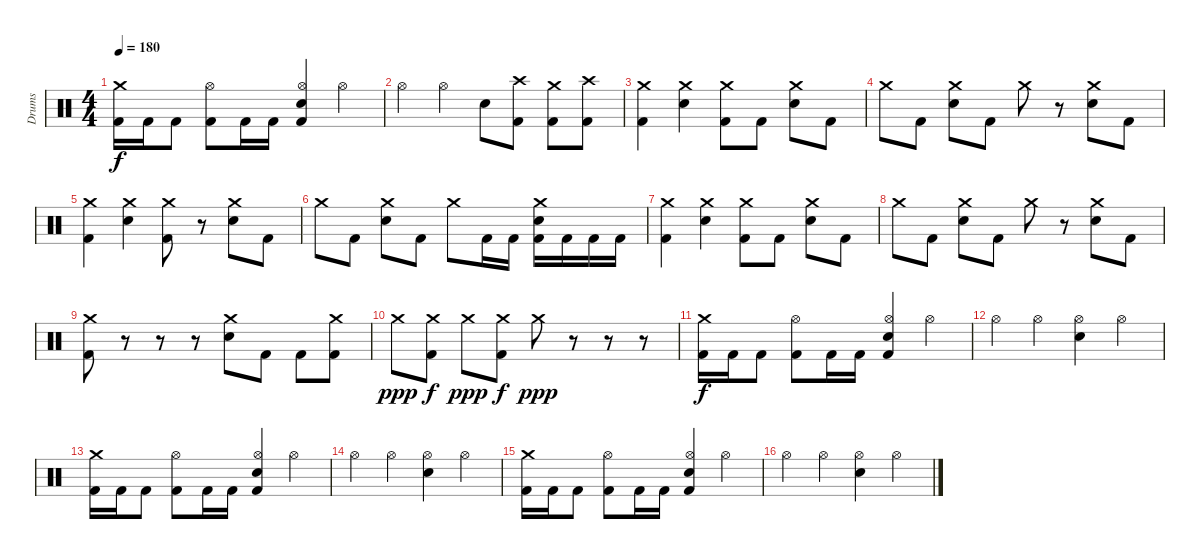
\track ("Drums" "Drums") {instrument percussion}
\staff
\articulation defaults
\ts (4 4)
\tempo 180
\clef neutral
\ks c
("Crash medium (hit)" "Kick (hit) 2").16{dy f} "Kick (hit) 2".16 "Kick (hit) 2".8 ("Hi-Hat (open)" "Kick (hit) 2").8 "Kick (hit) 2".16 "Kick (hit) 2".16 ("Hi-Hat (open)" "Electric Snare (hit)" "Kick (hit) 2").4 "Hi-Hat (open)".4 |
"Hi-Hat (open)".4 "Hi-Hat (open)".4 "Electric Snare (hit)".8 ("Crash high (hit)" "Kick (hit) 2").8 ("Crash medium (hit)" "Kick (hit) 2").8 ("Crash high (hit)" "Kick (hit) 2").8 |
("Crash medium (hit)" "Kick (hit) 2").4 ("Crash medium (hit)" "Electric Snare (hit)").4 ("Crash medium (hit)" "Kick (hit) 2").8 "Kick (hit) 2".8 ("Crash medium (hit)" "Electric Snare (hit)").8 "Kick (hit) 2".8 |
"Crash medium (hit)".8 "Kick (hit) 2".8 ("Crash medium (hit)" "Electric Snare (hit)").8 "Kick (hit) 2".8 "Crash medium (hit)".8 r.8 ("Crash medium (hit)" "Electric Snare (hit)").8 "Kick (hit) 2".8 |
("Crash medium (hit)" "Kick (hit) 2").4 ("Crash medium (hit)" "Electric Snare (hit)").4 ("Crash medium (hit)" "Kick (hit) 2").8 r.8 ("Crash medium (hit)" "Electric Snare (hit)").8 "Kick (hit) 2".8 |
"Crash medium (hit)".8 "Kick (hit) 2".8 ("Crash medium (hit)" "Electric Snare (hit)").8 "Kick (hit) 2".8 "Crash medium (hit)".8 "Kick (hit) 2".16 "Kick (hit) 2".16 ("Crash medium (hit)" "Electric Snare (hit)" "Kick (hit) 2").16 "Kick (hit) 2".16 "Kick (hit) 2".16 "Kick (hit) 2".16 |
("Crash medium (hit)" "Kick (hit) 2").4 ("Crash medium (hit)" "Electric Snare (hit)").4 ("Crash medium (hit)" "Kick (hit) 2").8 "Kick (hit) 2".8 ("Crash medium (hit)" "Electric Snare (hit)").8 "Kick (hit) 2".8 |
"Crash medium (hit)".8 "Kick (hit) 2".8 ("Crash medium (hit)" "Electric Snare (hit)").8 "Kick (hit) 2".8 "Crash medium (hit)".8 r.8 ("Crash medium (hit)" "Electric Snare (hit)").8 "Kick (hit) 2".8 |
("Crash medium (hit)" "Kick (hit) 2").8 r.8 r.8 r.8 ("Crash medium (hit)" "Electric Snare (hit)").8 "Kick (hit) 2".8 "Kick (hit) 2".8 ("Crash medium (hit)" "Kick (hit) 2").8 |
"Crash medium (hit)".8{dy ppp} ("Crash medium (hit)" "Kick (hit) 2").8{dy f} "Crash medium (hit)".8{dy ppp} ("Crash medium (hit)" "Kick (hit) 2").8{dy f} "Crash medium (hit)".8{dy ppp} r.8 r.8 r.8 |
("Crash medium (hit)" "Kick (hit) 2").16{dy f} "Kick (hit) 2".16 "Kick (hit) 2".8 ("Hi-Hat (open)" "Kick (hit) 2").8 "Kick (hit) 2".16 "Kick (hit) 2".16 ("Hi-Hat (open)" "Electric Snare (hit)" "Kick (hit) 2").4 "Hi-Hat (open)".4 |
"Hi-Hat (open)".4 "Hi-Hat (open)".4 ("Hi-Hat (open)" "Electric Snare (hit)").4 "Hi-Hat (open)".4 |
("Crash medium (hit)" "Kick (hit) 2").16 "Kick (hit) 2".16 "Kick (hit) 2".8 ("Hi-Hat (open)" "Kick (hit) 2").8 "Kick (hit) 2".16 "Kick (hit) 2".16 ("Hi-Hat (open)" "Electric Snare (hit)" "Kick (hit) 2").4 "Hi-Hat (open)".4 |
"Hi-Hat (open)".4 "Hi-Hat (open)".4 ("Hi-Hat (open)" "Electric Snare (hit)").4 "Hi-Hat (open)".4 |
("Crash medium (hit)" "Kick (hit) 2").16 "Kick (hit) 2".16 "Kick (hit) 2".8 ("Hi-Hat (open)" "Kick (hit) 2").8 "Kick (hit) 2".16 "Kick (hit) 2".16 ("Hi-Hat (open)" "Electric Snare (hit)" "Kick (hit) 2").4 "Hi-Hat (open)".4 |
"Hi-Hat (open)".4 "Hi-Hat (open)".4 ("Hi-Hat (open)" "Electric Snare (hit)").4 "Hi-Hat (open)".4
